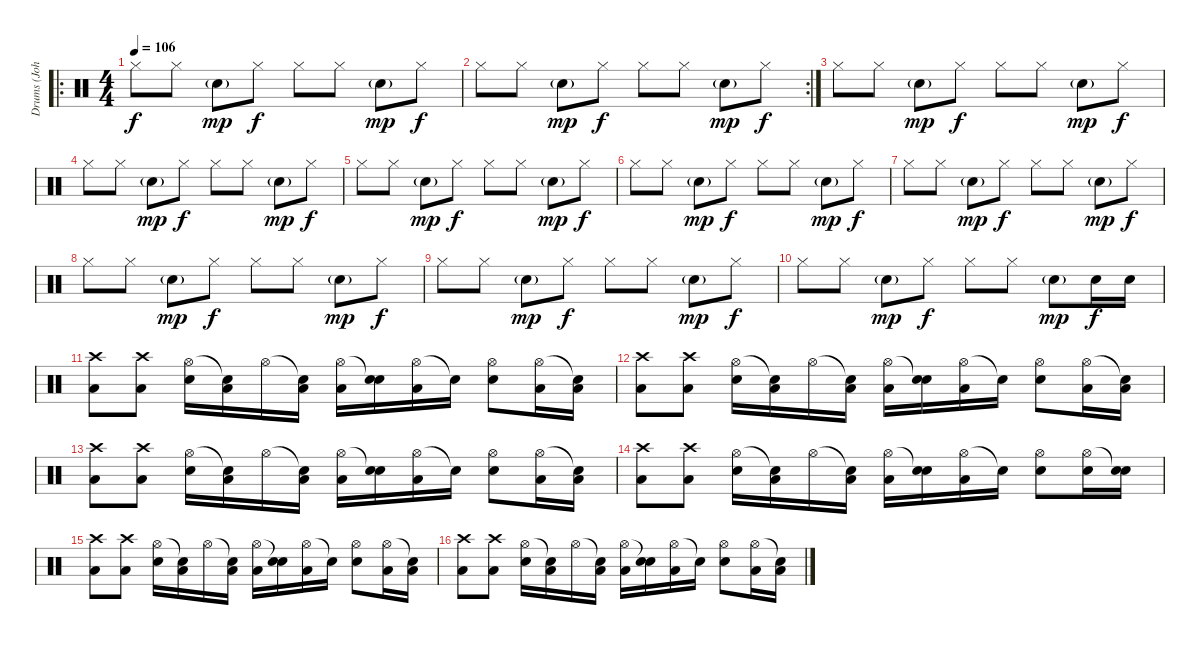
\track ("Drums (John)" "Drums (Joh") {instrument percussion}
\staff {score}
\articulation defaults
\ro
\ts (4 4)
\tempo 106
\clef neutral
\ks c "Hi-Hat (closed)".8{dy f} "Hi-Hat (closed)".8 "Electric Snare (hit)"{g}.8{dy mp} "Hi-Hat (closed)".8{dy f} "Hi-Hat (closed)".8 "Hi-Hat (closed)".8 "Electric Snare (hit)"{g}.8{dy mp} "Hi-Hat (closed)".8{dy f}
|
\rc 2 "Hi-Hat (closed)".8 "Hi-Hat (closed)".8 "Electric Snare (hit)"{g}.8{dy mp} "Hi-Hat (closed)".8{dy f} "Hi-Hat (closed)".8 "Hi-Hat (closed)".8 "Electric Snare (hit)"{g}.8{dy mp} "Hi-Hat (closed)".8{dy f}
|
"Hi-Hat (closed)".8 "Hi-Hat (closed)".8 "Electric Snare (hit)"{g}.8{dy mp} "Hi-Hat (closed)".8{dy f} "Hi-Hat (closed)".8 "Hi-Hat (closed)".8 "Electric Snare (hit)"{g}.8{dy mp} "Hi-Hat (closed)".8{dy f} |
"Hi-Hat (closed)".8 "Hi-Hat (closed)".8 "Electric Snare (hit)"{g}.8{dy mp} "Hi-Hat (closed)".8{dy f} "Hi-Hat (closed)".8 "Hi-Hat (closed)".8 "Electric Snare (hit)"{g}.8{dy mp} "Hi-Hat (closed)".8{dy f} |
"Hi-Hat (closed)".8 "Hi-Hat (closed)".8 "Electric Snare (hit)"{g}.8{dy mp} "Hi-Hat (closed)".8{dy f} "Hi-Hat (closed)".8 "Hi-Hat (closed)".8 "Electric Snare (hit)"{g}.8{dy mp} "Hi-Hat (closed)".8{dy f} |
"Hi-Hat (closed)".8 "Hi-Hat (closed)".8 "Electric Snare (hit)"{g}.8{dy mp} "Hi-Hat (closed)".8{dy f} "Hi-Hat (closed)".8 "Hi-Hat (closed)".8 "Electric Snare (hit)"{g}.8{dy mp} "Hi-Hat (closed)".8{dy f} |
"Hi-Hat (closed)".8 "Hi-Hat (closed)".8 "Electric Snare (hit)"{g}.8{dy mp} "Hi-Hat (closed)".8{dy f} "Hi-Hat (closed)".8 "Hi-Hat (closed)".8 "Electric Snare (hit)"{g}.8{dy mp} "Hi-Hat (closed)".8{dy f} |
"Hi-Hat (closed)".8 "Hi-Hat (closed)".8 "Electric Snare (hit)"{g}.8{dy mp} "Hi-Hat (closed)".8{dy f} "Hi-Hat (closed)".8 "Hi-Hat (closed)".8 "Electric Snare (hit)"{g}.8{dy mp} "Hi-Hat (closed)".8{dy f} |
"Hi-Hat (closed)".8 "Hi-Hat (closed)".8 "Electric Snare (hit)"{g}.8{dy mp} "Hi-Hat (closed)".8{dy f} "Hi-Hat (closed)".8 "Hi-Hat (closed)".8 "Electric Snare (hit)"{g}.8{dy mp} "Hi-Hat (closed)".8{dy f} |
"Hi-Hat (closed)".8 "Hi-Hat (closed)".8 "Electric Snare (hit)"{g}.8{dy mp} "Hi-Hat (closed)".8{dy f} "Hi-Hat (closed)".8 "Hi-Hat (closed)".8 "Electric Snare (hit)"{g}.8{dy mp} "Electric Snare (hit)".16{dy f} "Electric Snare (hit)".16 |
("Crash high (hit)" "Low Tom (hit)").8 ("Crash high (hit)" "Low Tom (hit)").8 ("Hi-Hat (open)" "Electric Snare (hit)").16 ("Snare (hit)"{t} "Low Tom (hit)").16 "Hi-Hat (open)".16 ("Snare (hit)"{t} "Low Tom (hit)").16 ("Hi-Hat (open)" "Low Tom (hit)").16 ("Snare (hit)"{t} "Electric Snare (hit)").16 ("Hi-Hat (open)" "Low Tom (hit)").16 "Snare (hit)"{t}.16 ("Hi-Hat (open)" "Electric Snare (hit)").8 ("Hi-Hat (open)" "Low Tom (hit)").16 ("Snare (hit)"{t} "Low Tom (hit)").16 |
("Crash high (hit)" "Low Tom (hit)").8 ("Crash high (hit)" "Low Tom (hit)").8 ("Hi-Hat (open)" "Electric Snare (hit)").16 ("Snare (hit)"{t} "Low Tom (hit)").16 "Hi-Hat (open)".16 ("Snare (hit)"{t} "Low Tom (hit)").16 ("Hi-Hat (open)" "Low Tom (hit)").16 ("Snare (hit)"{t} "Electric Snare (hit)").16 ("Hi-Hat (open)" "Low Tom (hit)").16 "Snare (hit)"{t}.16 ("Hi-Hat (open)" "Electric Snare (hit)").8 ("Hi-Hat (open)" "Low Tom (hit)").16 ("Snare (hit)"{t} "Low Tom (hit)").16 |
("Crash high (hit)" "Low Tom (hit)").8 ("Crash high (hit)" "Low Tom (hit)").8 ("Hi-Hat (open)" "Electric Snare (hit)").16 ("Snare (hit)"{t} "Low Tom (hit)").16 "Hi-Hat (open)".16 ("Snare (hit)"{t} "Low Tom (hit)").16 ("Hi-Hat (open)" "Low Tom (hit)").16 ("Snare (hit)"{t} "Electric Snare (hit)").16 ("Hi-Hat (open)" "Low Tom (hit)").16 "Snare (hit)"{t}.16 ("Hi-Hat (open)" "Electric Snare (hit)").8 ("Hi-Hat (open)" "Low Tom (hit)").16 ("Snare (hit)"{t} "Low Tom (hit)").16 |
("Crash high (hit)" "Low Tom (hit)").8 ("Crash high (hit)" "Low Tom (hit)").8 ("Hi-Hat (open)" "Electric Snare (hit)").16 ("Snare (hit)"{t} "Low Tom (hit)").16 "Hi-Hat (open)".16 ("Snare (hit)"{t} "Low Tom (hit)").16 ("Hi-Hat (open)" "Low Tom (hit)").16 ("Snare (hit)"{t} "Electric Snare (hit)").16 ("Hi-Hat (open)" "Low Tom (hit)").16 "Snare (hit)"{t}.16 ("Hi-Hat (open)" "Electric Snare (hit)").8 ("Hi-Hat (open)" "Electric Snare (hit)").16 ("Snare (hit)"{t} "Electric Snare (hit)").16 |
("Crash high (hit)" "Low Tom (hit)").8 ("Crash high (hit)" "Low Tom (hit)").8 ("Hi-Hat (open)" "Electric Snare (hit)").16 ("Snare (hit)"{t} "Low Tom (hit)").16 "Hi-Hat (open)".16 ("Snare (hit)"{t} "Low Tom (hit)").16 ("Hi-Hat (open)" "Low Tom (hit)").16 ("Snare (hit)"{t} "Electric Snare (hit)").16 ("Hi-Hat (open)" "Low Tom (hit)").16 "Snare (hit)"{t}.16 ("Hi-Hat (open)" "Electric Snare (hit)").8 ("Hi-Hat (open)" "Low Tom (hit)").16 ("Snare (hit)"{t} "Low Tom (hit)").16 |
("Crash high (hit)" "Low Tom (hit)").8 ("Crash high (hit)" "Low Tom (hit)").8 ("Hi-Hat (open)" "Electric Snare (hit)").16 ("Snare (hit)"{t} "Low Tom (hit)").16 "Hi-Hat (open)".16 ("Snare (hit)"{t} "Low Tom (hit)").16 ("Hi-Hat (open)" "Low Tom (hit)").16 ("Snare (hit)"{t} "Electric Snare (hit)").16 ("Hi-Hat (open)" "Low Tom (hit)").16 "Snare (hit)"{t}.16 ("Hi-Hat (open)" "Electric Snare (hit)").8 ("Hi-Hat (open)" "Low Tom (hit)").16 ("Snare (hit)"{t} "Low Tom (hit)").16
